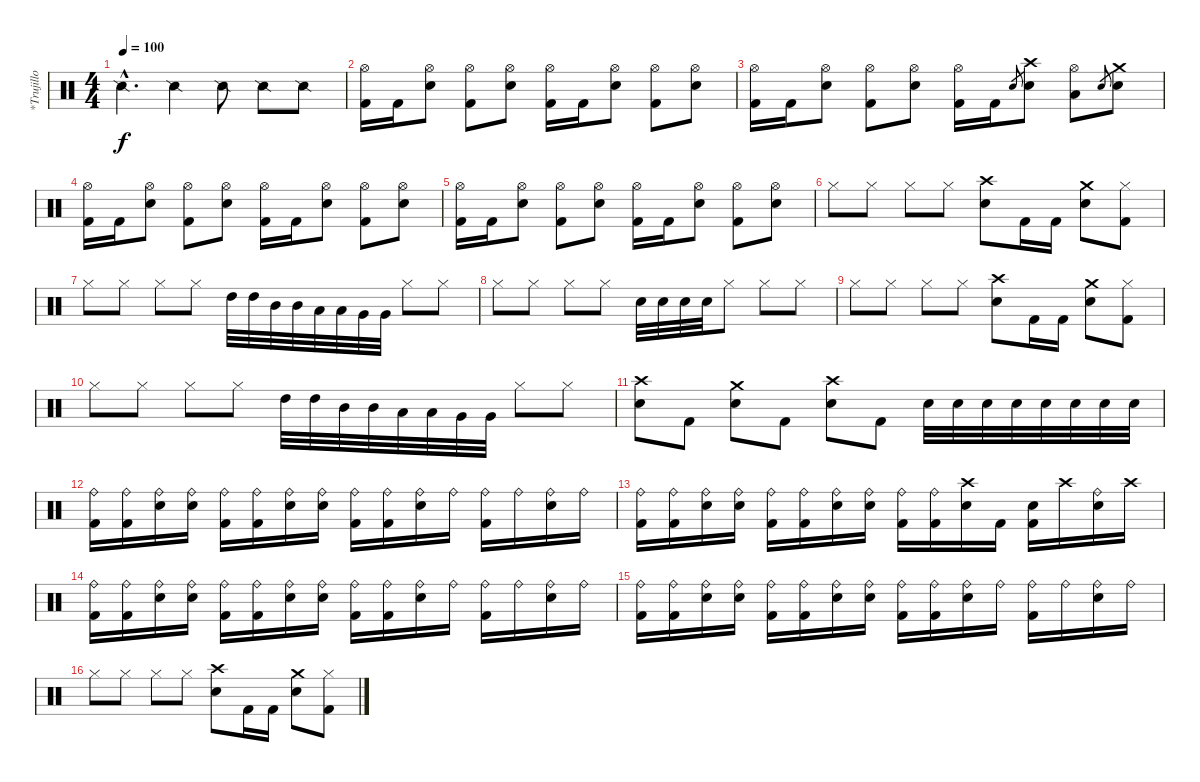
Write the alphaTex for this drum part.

\track ("*Trujillo" "*Trujillo") {instrument percussion}
\staff {score}
\articulation defaults
\ts (4 4)
\tempo 100
\clef neutral
\ks c "Snare (side stick) 2"{hac}.4{d dy f} "Snare (side stick) 2".4 "Snare (side stick) 2".8 "Snare (side stick) 2".8 "Snare (side stick) 2".8
|
("Hi-Hat (open)" "Kick (hit) 2").16 "Kick (hit) 2".16 ("Hi-Hat (open)" "Electric Snare (hit)").8 ("Hi-Hat (open)" "Kick (hit) 2").8 ("Hi-Hat (open)" "Electric Snare (hit)").8 ("Hi-Hat (open)" "Kick (hit) 2").16 "Kick (hit) 2".16 ("Hi-Hat (open)" "Electric Snare (hit)").8 ("Hi-Hat (open)" "Kick (hit) 2").8 ("Hi-Hat (open)" "Electric Snare (hit)").8 |
("Hi-Hat (open)" "Kick (hit) 2").16 "Kick (hit) 2".16 ("Hi-Hat (open)" "Electric Snare (hit)").8 ("Hi-Hat (open)" "Kick (hit) 2").8 ("Hi-Hat (open)" "Electric Snare (hit)").8 ("Hi-Hat (open)" "Kick (hit) 2").16 "Kick (hit) 2".16 "Electric Snare (hit)".8{gr} ("Crash high (hit)" "Electric Snare (hit)").8 ("Hi-Hat (open)"{x} "Low Tom (hit)").8 "Electric Snare (hit)".8{gr} ("Crash medium (hit)" "Electric Snare (hit)").8 |
("Hi-Hat (open)" "Kick (hit) 2").16 "Kick (hit) 2".16 ("Hi-Hat (open)" "Electric Snare (hit)").8 ("Hi-Hat (open)" "Kick (hit) 2").8 ("Hi-Hat (open)" "Electric Snare (hit)").8 ("Hi-Hat (open)" "Kick (hit) 2").16 "Kick (hit) 2".16 ("Hi-Hat (open)" "Electric Snare (hit)").8 ("Hi-Hat (open)" "Kick (hit) 2").8 ("Hi-Hat (open)" "Electric Snare (hit)").8 |
("Hi-Hat (open)" "Kick (hit) 2").16 "Kick (hit) 2".16 ("Hi-Hat (open)" "Electric Snare (hit)").8 ("Hi-Hat (open)" "Kick (hit) 2").8 ("Hi-Hat (open)" "Electric Snare (hit)").8 ("Hi-Hat (open)" "Kick (hit) 2").16 "Kick (hit) 2".16 ("Hi-Hat (open)" "Electric Snare (hit)").8 ("Hi-Hat (open)" "Kick (hit) 2").8 ("Hi-Hat (open)" "Electric Snare (hit)").8 |
"Hi-Hat (closed)".8 "Hi-Hat (closed)".8 "Hi-Hat (closed)".8 "Hi-Hat (closed)".8 ("Crash high (hit)" "Electric Snare (hit)").8 "Kick (hit) 2".16 "Kick (hit) 2".16 ("Crash medium (hit)" "Electric Snare (hit)").8 ("Hi-Hat (closed)"{x} "Kick (hit) 2").8 |
"Hi-Hat (closed)".8 "Hi-Hat (closed)".8 "Hi-Hat (closed)".8 "Hi-Hat (closed)".8 "High Tom (hit)".32 "High Tom (hit)".32 "Mid Tom (hit)".32 "Mid Tom (hit)".32 "Low Tom (hit)".32 "Low Tom (hit)".32 "Very Low Tom (hit)".32 "Very Low Tom (hit)".32 "Hi-Hat (closed)".8 "Hi-Hat (closed)".8 |
"Hi-Hat (closed)".8 "Hi-Hat (closed)".8 "Hi-Hat (closed)".8 "Hi-Hat (closed)".8 "Electric Snare (hit)".32 "Electric Snare (hit)".32 "Electric Snare (hit)".32 "Electric Snare (hit)".32 "Hi-Hat (closed)".8 "Hi-Hat (closed)".8 "Hi-Hat (closed)".8 |
"Hi-Hat (closed)".8 "Hi-Hat (closed)".8 "Hi-Hat (closed)".8 "Hi-Hat (closed)".8 ("Crash high (hit)" "Electric Snare (hit)").8 "Kick (hit) 2".16 "Kick (hit) 2".16 ("Crash medium (hit)" "Electric Snare (hit)").8 ("Hi-Hat (closed)"{x} "Kick (hit) 2").8 |
"Hi-Hat (closed)".8 "Hi-Hat (closed)".8 "Hi-Hat (closed)".8 "Hi-Hat (closed)".8 "High Tom (hit)".32 "High Tom (hit)".32 "Mid Tom (hit)".32 "Mid Tom (hit)".32 "Low Tom (hit)".32 "Low Tom (hit)".32 "Very Low Tom (hit)".32 "Very Low Tom (hit)".32 "Hi-Hat (closed)".8 "Hi-Hat (closed)".8 |
("Crash high (hit)" "Electric Snare (hit)").8 "Kick (hit) 2".8 ("Crash medium (hit)" "Electric Snare (hit)").8 "Kick (hit) 2".8 ("Crash high (hit)" "Electric Snare (hit)").8 "Kick (hit) 2".8 "Electric Snare (hit)".32 "Electric Snare (hit)".32 "Electric Snare (hit)".32 "Electric Snare (hit)".32 "Electric Snare (hit)".32 "Electric Snare (hit)".32 "Electric Snare (hit)".32 "Electric Snare (hit)".32 |
("Ride (bell)" "Kick (hit) 2").16 ("Ride (bell)" "Kick (hit) 2").16 ("Ride (bell)" "Electric Snare (hit)").16 ("Ride (bell)" "Electric Snare (hit)"{x}).16 ("Ride (bell)" "Kick (hit) 2").16 ("Ride (bell)" "Kick (hit) 2"{x}).16 ("Ride (bell)" "Electric Snare (hit)").16 ("Ride (bell)" "Electric Snare (hit)"{x}).16 ("Ride (bell)" "Kick (hit) 2").16 ("Ride (bell)" "Kick (hit) 2").16 ("Ride (bell)" "Electric Snare (hit)").16 "Ride (bell)".16 ("Ride (bell)" "Kick (hit) 2").16 "Ride (bell)".16 ("Ride (bell)" "Electric Snare (hit)").16 "Ride (bell)".16 |
("Ride (bell)" "Kick (hit) 2").16 ("Ride (bell)" "Kick (hit) 2").16 ("Ride (bell)" "Electric Snare (hit)").16 ("Ride (bell)" "Electric Snare (hit)"{x}).16 ("Ride (bell)" "Kick (hit) 2").16 ("Ride (bell)" "Kick (hit) 2"{x}).16 ("Ride (bell)" "Electric Snare (hit)").16 ("Ride (bell)" "Electric Snare (hit)"{x}).16 ("Ride (bell)" "Kick (hit) 2").16 ("Ride (bell)" "Kick (hit) 2").16 ("Crash high (hit)" "Electric Snare (hit)").16 "Kick (hit) 2".16 ("Kick (hit) 2" "Electric Snare (hit)").16 "Crash high (hit)".16 ("Ride (bell)" "Electric Snare (hit)").16 "Crash high (hit)".16 |
("Ride (bell)" "Kick (hit) 2").16 ("Ride (bell)" "Kick (hit) 2").16 ("Ride (bell)" "Electric Snare (hit)").16 ("Ride (bell)" "Electric Snare (hit)"{x}).16 ("Ride (bell)" "Kick (hit) 2").16 ("Ride (bell)" "Kick (hit) 2"{x}).16 ("Ride (bell)" "Electric Snare (hit)").16 ("Ride (bell)" "Electric Snare (hit)"{x}).16 ("Ride (bell)" "Kick (hit) 2").16 ("Ride (bell)" "Kick (hit) 2").16 ("Ride (bell)" "Electric Snare (hit)").16 "Ride (bell)".16 ("Ride (bell)" "Kick (hit) 2").16 "Ride (bell)".16 ("Ride (bell)" "Electric Snare (hit)").16 "Ride (bell)".16 |
("Ride (bell)" "Kick (hit) 2").16 ("Ride (bell)" "Kick (hit) 2").16 ("Ride (bell)" "Electric Snare (hit)").16 ("Ride (bell)" "Electric Snare (hit)"{x}).16 ("Ride (bell)" "Kick (hit) 2").16 ("Ride (bell)" "Kick (hit) 2"{x}).16 ("Ride (bell)" "Electric Snare (hit)").16 ("Ride (bell)" "Electric Snare (hit)"{x}).16 ("Ride (bell)" "Kick (hit) 2").16 ("Ride (bell)" "Kick (hit) 2").16 ("Ride (bell)" "Electric Snare (hit)").16 "Ride (bell)".16 ("Ride (bell)" "Kick (hit) 2").16 "Ride (bell)".16 ("Ride (bell)" "Electric Snare (hit)").16 "Ride (bell)".16 |
"Hi-Hat (closed)".8 "Hi-Hat (closed)".8 "Hi-Hat (closed)".8 "Hi-Hat (closed)".8 ("Crash high (hit)" "Electric Snare (hit)").8 "Kick (hit) 2".16 "Kick (hit) 2".16 ("Crash medium (hit)" "Electric Snare (hit)").8 ("Hi-Hat (closed)"{x} "Kick (hit) 2").8
